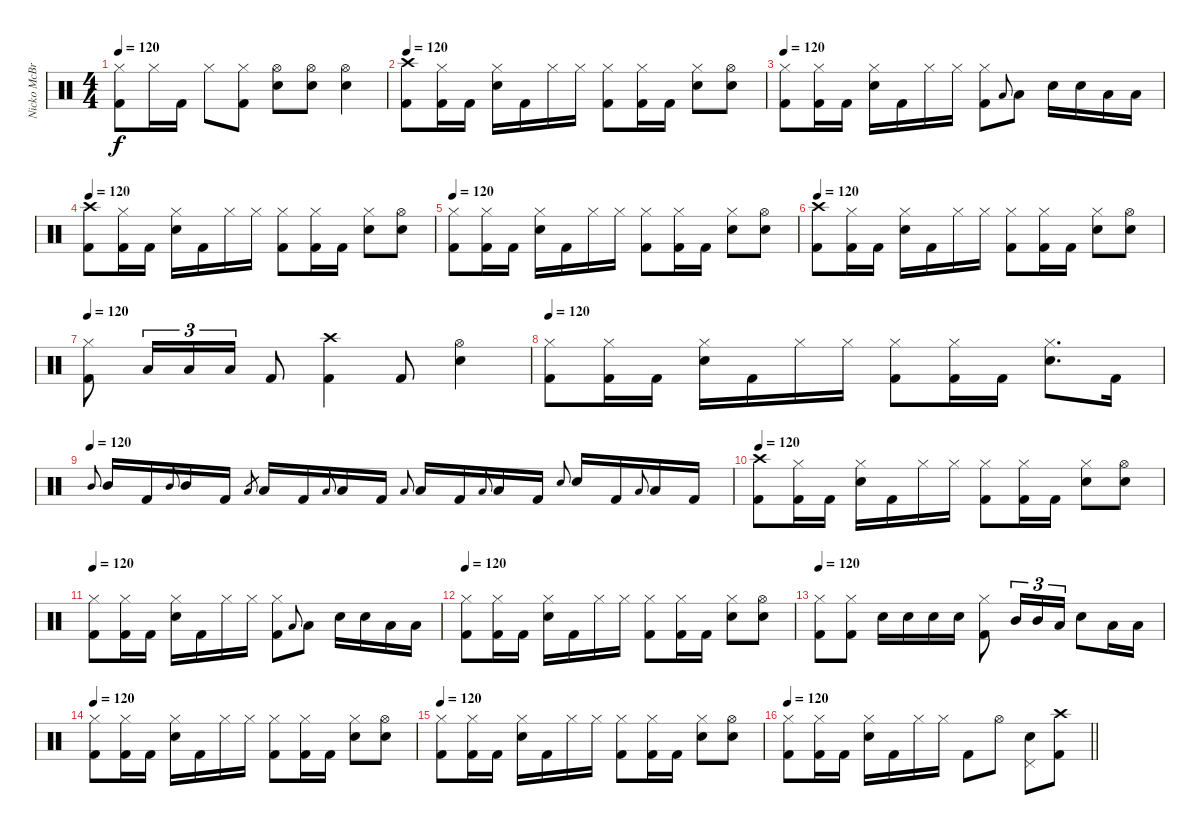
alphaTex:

\track ("Nicko McBrain" "Nicko McBr") {instrument percussion}
\staff {score}
\articulation defaults
\ts (4 4)
\tempo 120
\clef neutral
\ks c
("Hi-Hat (closed)" "Kick (hit) 2").8{dy f} "Hi-Hat (closed)".16 "Kick (hit) 2".16 "Hi-Hat (closed)".8 ("Hi-Hat (closed)" "Kick (hit) 2").8 ("Hi-Hat (open)" "Snare (hit) 2").8 ("Hi-Hat (open)" "Snare (hit) 2").8 ("Hi-Hat (open)" "Snare (hit) 2").4 |
\tempo 120
("Crash high (hit)" "Kick (hit) 2").8 ("Hi-Hat (closed)" "Kick (hit) 2").16 "Kick (hit) 2".16 ("Hi-Hat (closed)" "Snare (hit) 2").16 "Kick (hit) 2".16 "Hi-Hat (closed)".16 "Hi-Hat (closed)".16 ("Hi-Hat (closed)" "Kick (hit) 2").8 ("Hi-Hat (closed)" "Kick (hit) 2").16 "Kick (hit) 2".16 ("Hi-Hat (closed)" "Snare (hit) 2").8 ("Hi-Hat (open)" "Snare (hit) 2").8 |
\tempo 120
("Hi-Hat (closed)" "Kick (hit) 2").8 ("Hi-Hat (closed)" "Kick (hit) 2").16 "Kick (hit) 2".16 ("Hi-Hat (closed)" "Snare (hit) 2").16 "Kick (hit) 2".16 "Hi-Hat (closed)".16 "Hi-Hat (closed)".16 ("Hi-Hat (closed)" "Kick (hit) 2").8 "Low Tom (hit)".8{gr onbeat} "Low Tom (hit)".8 "Snare (hit) 2".16 "Snare (hit) 2".16 "Low Floor Tom (hit)".16 "Low Floor Tom (hit)".16 |
\tempo 120
("Crash high (hit)" "Kick (hit) 2").8 ("Hi-Hat (closed)" "Kick (hit) 2").16 "Kick (hit) 2".16 ("Hi-Hat (closed)" "Snare (hit) 2").16 "Kick (hit) 2".16 "Hi-Hat (closed)".16 "Hi-Hat (closed)".16 ("Hi-Hat (closed)" "Kick (hit) 2").8 ("Hi-Hat (closed)" "Kick (hit) 2").16 "Kick (hit) 2".16 ("Hi-Hat (closed)" "Snare (hit) 2").8 ("Hi-Hat (open)" "Snare (hit) 2").8 |
\tempo 120
("Hi-Hat (closed)" "Kick (hit) 2").8 ("Hi-Hat (closed)" "Kick (hit) 2").16 "Kick (hit) 2".16 ("Hi-Hat (closed)" "Snare (hit) 2").16 "Kick (hit) 2".16 "Hi-Hat (closed)".16 "Hi-Hat (closed)".16 ("Hi-Hat (closed)" "Kick (hit) 2").8 ("Hi-Hat (closed)" "Kick (hit) 2").16 "Kick (hit) 2".16 ("Hi-Hat (closed)" "Snare (hit) 2").8 ("Hi-Hat (open)" "Snare (hit) 2").8 |
\tempo 120
("Crash high (hit)" "Kick (hit) 2").8 ("Hi-Hat (closed)" "Kick (hit) 2").16 "Kick (hit) 2".16 ("Hi-Hat (closed)" "Snare (hit) 2").16 "Kick (hit) 2".16 "Hi-Hat (closed)".16 "Hi-Hat (closed)".16 ("Hi-Hat (closed)" "Kick (hit) 2").8 ("Hi-Hat (closed)" "Kick (hit) 2").16 "Kick (hit) 2".16 ("Hi-Hat (closed)" "Snare (hit) 2").8 ("Hi-Hat (open)" "Snare (hit) 2").8 |
\tempo 120
("Hi-Hat (closed)" "Kick (hit) 2").8 "Low Tom (hit)".16{tu (3 2)} "Low Tom (hit)".16{tu (3 2)} "Low Floor Tom (hit)".16{tu (3 2)} "Kick (hit) 2".8 ("Crash high (hit)" "Kick (hit) 2").4 "Kick (hit) 2".8 ("Hi-Hat (open)" "Snare (hit) 2").4 |
\tempo 120
("Hi-Hat (closed)" "Kick (hit) 2").8 ("Hi-Hat (closed)" "Kick (hit) 2").16 "Kick (hit) 2".16 ("Hi-Hat (closed)" "Snare (hit) 2").16 "Kick (hit) 2".16 "Hi-Hat (closed)".16 "Hi-Hat (closed)".16 ("Hi-Hat (closed)" "Kick (hit) 2").8 ("Hi-Hat (closed)" "Kick (hit) 2").16 "Kick (hit) 2".16 ("Hi-Hat (closed)" "Snare (hit) 2").8{d} "Kick (hit) 2".16 |
\tempo (120)
"Mid Tom (hit)".8{gr onbeat} "Mid Tom (hit)".16 "Kick (hit) 2".16 "Mid Tom (hit)".8{gr onbeat} "Mid Tom (hit)".16 "Kick (hit) 2".16 "Low Tom (hit)".8{gr} "Low Tom (hit)".16 "Kick (hit) 2".16 "Low Tom (hit)".8{gr onbeat} "Low Tom (hit)".16 "Kick (hit) 2".16 "Low Floor Tom (hit)".8{gr onbeat} "Low Floor Tom (hit)".16 "Kick (hit) 2".16 "Low Floor Tom (hit)".8{gr onbeat} "Low Floor Tom (hit)".16 "Kick (hit) 2".16 "Snare (hit) 2".8{gr onbeat} "Snare (hit) 2".16 "Kick (hit) 2".16 "Low Floor Tom (hit)".8{gr onbeat} "Low Floor Tom (hit)".16 "Kick (hit) 2".16 |
\tempo 120
("Crash high (hit)" "Kick (hit) 2").8 ("Hi-Hat (closed)" "Kick (hit) 2").16 "Kick (hit) 2".16 ("Hi-Hat (closed)" "Snare (hit) 2").16 "Kick (hit) 2".16 "Hi-Hat (closed)".16 "Hi-Hat (closed)".16 ("Hi-Hat (closed)" "Kick (hit) 2").8 ("Hi-Hat (closed)" "Kick (hit) 2").16 "Kick (hit) 2".16 ("Hi-Hat (closed)" "Snare (hit) 2").8 ("Hi-Hat (open)" "Snare (hit) 2").8 |
\tempo 120
("Hi-Hat (closed)" "Kick (hit) 2").8 ("Hi-Hat (closed)" "Kick (hit) 2").16 "Kick (hit) 2".16 ("Hi-Hat (closed)" "Snare (hit) 2").16 "Kick (hit) 2".16 "Hi-Hat (closed)".16 "Hi-Hat (closed)".16 ("Hi-Hat (closed)" "Kick (hit) 2").8 "Low Tom (hit)".8{gr onbeat} "Low Tom (hit)".8 "Snare (hit) 2".16 "Snare (hit) 2".16 "Low Floor Tom (hit)".16 "Low Floor Tom (hit)".16 |
\tempo 120
("Hi-Hat (closed)" "Kick (hit) 2").8 ("Hi-Hat (closed)" "Kick (hit) 2").16 "Kick (hit) 2".16 ("Hi-Hat (closed)" "Snare (hit) 2").16 "Kick (hit) 2".16 "Hi-Hat (closed)".16 "Hi-Hat (closed)".16 ("Hi-Hat (closed)" "Kick (hit) 2").8 ("Hi-Hat (closed)" "Kick (hit) 2").16 "Kick (hit) 2".16 ("Hi-Hat (closed)" "Snare (hit) 2").8 ("Hi-Hat (open)" "Snare (hit) 2").8 |
\tempo 120
("Hi-Hat (closed)" "Kick (hit) 2").8 ("Hi-Hat (closed)" "Kick (hit) 2").8 "Snare (hit) 2".16 "Snare (hit) 2".16 "Snare (hit) 2".16 "Snare (hit) 2".16 ("Hi-Hat (closed)" "Kick (hit) 2").8 "Mid Tom (hit)".16{tu (3 2)} "Mid Tom (hit)".16{tu (3 2)} "Low Tom (hit)".16{tu (3 2)} "Snare (hit) 2".8 "Low Floor Tom (hit)".16 "Low Floor Tom (hit)".16 |
\tempo 120
("Hi-Hat (closed)" "Kick (hit) 2").8 ("Hi-Hat (closed)" "Kick (hit) 2").16 "Kick (hit) 2".16 ("Hi-Hat (closed)" "Snare (hit) 2").16 "Kick (hit) 2".16 "Hi-Hat (closed)".16 "Hi-Hat (closed)".16 ("Hi-Hat (closed)" "Kick (hit) 2").8 ("Hi-Hat (closed)" "Kick (hit) 2").16 "Kick (hit) 2".16 ("Hi-Hat (closed)" "Snare (hit) 2").8 ("Hi-Hat (open)" "Snare (hit) 2").8 |
\tempo 120
("Hi-Hat (closed)" "Kick (hit) 2").8 ("Hi-Hat (closed)" "Kick (hit) 2").16 "Kick (hit) 2".16 ("Hi-Hat (closed)" "Snare (hit) 2").16 "Kick (hit) 2".16 "Hi-Hat (closed)".16 "Hi-Hat (closed)".16 ("Hi-Hat (closed)" "Kick (hit) 2").8 ("Hi-Hat (closed)" "Kick (hit) 2").16 "Kick (hit) 2".16 ("Hi-Hat (closed)" "Snare (hit) 2").8 ("Hi-Hat (open)" "Snare (hit) 2").8 |
\tempo 120
\barLineRight lightlight
("Hi-Hat (closed)" "Kick (hit) 2").8 ("Hi-Hat (closed)" "Kick (hit) 2").16 "Kick (hit) 2".16 ("Hi-Hat (closed)" "Snare (hit) 2").16 "Kick (hit) 2".16 "Hi-Hat (closed)".16 "Hi-Hat (closed)".16 "Kick (hit) 2".8 "Hi-Hat (open)".8 ("Snare (hit) 2" "Pedal Hi-Hat (hit)").8 ("Crash high (hit)" "Kick (hit) 2").8
